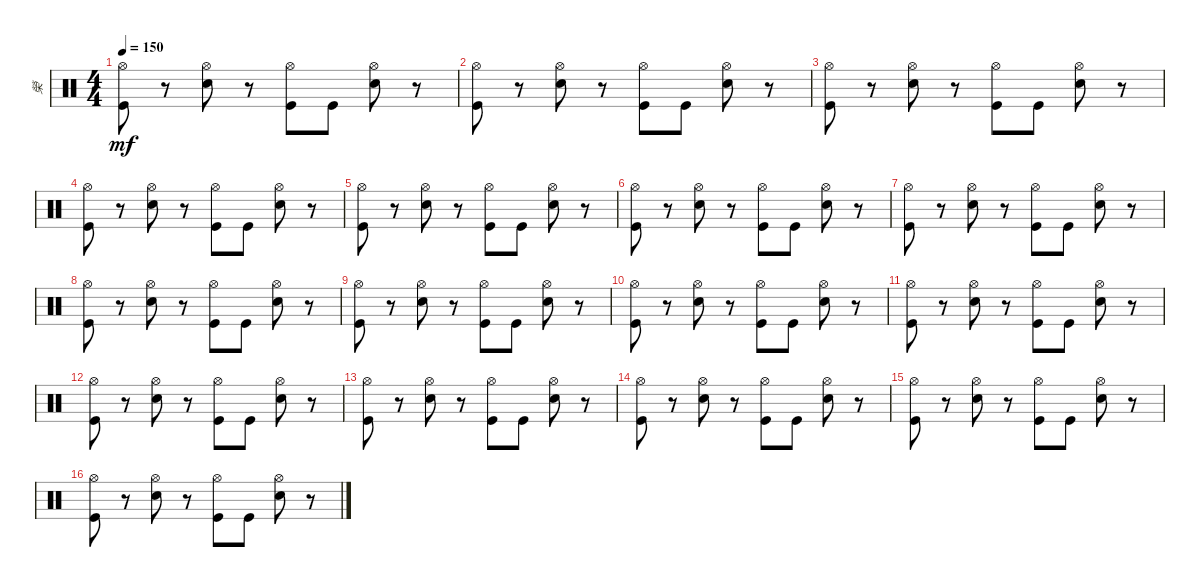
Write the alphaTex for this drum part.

\track ("榮" "榮") {instrument percussion}
\staff {score}
\articulation defaults
\ts (4 4)
\tempo 150
\clef neutral
\ks c
("Hi-Hat (open)" "Kick (hit)").8{dy mf} r.8 ("Hi-Hat (open)" "Snare (hit) 2").8 r.8 ("Hi-Hat (open)" "Kick (hit)").8 "Kick (hit)".8 ("Hi-Hat (open)" "Snare (hit) 2").8 r.8 |
("Hi-Hat (open)" "Kick (hit)").8 r.8 ("Hi-Hat (open)" "Snare (hit) 2").8 r.8 ("Hi-Hat (open)" "Kick (hit)").8 "Kick (hit)".8 ("Hi-Hat (open)" "Snare (hit) 2").8 r.8 |
("Hi-Hat (open)" "Kick (hit)").8 r.8 ("Hi-Hat (open)" "Snare (hit) 2").8 r.8 ("Hi-Hat (open)" "Kick (hit)").8 "Kick (hit)".8 ("Hi-Hat (open)" "Snare (hit) 2").8 r.8 |
("Hi-Hat (open)" "Kick (hit)").8 r.8 ("Hi-Hat (open)" "Snare (hit) 2").8 r.8 ("Hi-Hat (open)" "Kick (hit)").8 "Kick (hit)".8 ("Hi-Hat (open)" "Snare (hit) 2").8 r.8 |
("Hi-Hat (open)" "Kick (hit)").8 r.8 ("Hi-Hat (open)" "Snare (hit) 2").8 r.8 ("Hi-Hat (open)" "Kick (hit)").8 "Kick (hit)".8 ("Hi-Hat (open)" "Snare (hit) 2").8 r.8 |
("Hi-Hat (open)" "Kick (hit)").8 r.8 ("Hi-Hat (open)" "Snare (hit) 2").8 r.8 ("Hi-Hat (open)" "Kick (hit)").8 "Kick (hit)".8 ("Hi-Hat (open)" "Snare (hit) 2").8 r.8 |
("Hi-Hat (open)" "Kick (hit)").8 r.8 ("Hi-Hat (open)" "Snare (hit) 2").8 r.8 ("Hi-Hat (open)" "Kick (hit)").8 "Kick (hit)".8 ("Hi-Hat (open)" "Snare (hit) 2").8 r.8 |
("Hi-Hat (open)" "Kick (hit)").8 r.8 ("Hi-Hat (open)" "Snare (hit) 2").8 r.8 ("Hi-Hat (open)" "Kick (hit)").8 "Kick (hit)".8 ("Hi-Hat (open)" "Snare (hit) 2").8 r.8 |
("Hi-Hat (open)" "Kick (hit)").8 r.8 ("Hi-Hat (open)" "Snare (hit) 2").8 r.8 ("Hi-Hat (open)" "Kick (hit)").8 "Kick (hit)".8 ("Hi-Hat (open)" "Snare (hit) 2").8 r.8 |
("Hi-Hat (open)" "Kick (hit)").8 r.8 ("Hi-Hat (open)" "Snare (hit) 2").8 r.8 ("Hi-Hat (open)" "Kick (hit)").8 "Kick (hit)".8 ("Hi-Hat (open)" "Snare (hit) 2").8 r.8 |
("Hi-Hat (open)" "Kick (hit)").8 r.8 ("Hi-Hat (open)" "Snare (hit) 2").8 r.8 ("Hi-Hat (open)" "Kick (hit)").8 "Kick (hit)".8 ("Hi-Hat (open)" "Snare (hit) 2").8 r.8 |
("Hi-Hat (open)" "Kick (hit)").8 r.8 ("Hi-Hat (open)" "Snare (hit) 2").8 r.8 ("Hi-Hat (open)" "Kick (hit)").8 "Kick (hit)".8 ("Hi-Hat (open)" "Snare (hit) 2").8 r.8 |
("Hi-Hat (open)" "Kick (hit)").8 r.8 ("Hi-Hat (open)" "Snare (hit) 2").8 r.8 ("Hi-Hat (open)" "Kick (hit)").8 "Kick (hit)".8 ("Hi-Hat (open)" "Snare (hit) 2").8 r.8 |
("Hi-Hat (open)" "Kick (hit)").8 r.8 ("Hi-Hat (open)" "Snare (hit) 2").8 r.8 ("Hi-Hat (open)" "Kick (hit)").8 "Kick (hit)".8 ("Hi-Hat (open)" "Snare (hit) 2").8 r.8 |
("Hi-Hat (open)" "Kick (hit)").8 r.8 ("Hi-Hat (open)" "Snare (hit) 2").8 r.8 ("Hi-Hat (open)" "Kick (hit)").8 "Kick (hit)".8 ("Hi-Hat (open)" "Snare (hit) 2").8 r.8 |
("Hi-Hat (open)" "Kick (hit)").8 r.8 ("Hi-Hat (open)" "Snare (hit) 2").8 r.8 ("Hi-Hat (open)" "Kick (hit)").8 "Kick (hit)".8 ("Hi-Hat (open)" "Snare (hit) 2").8 r.8
